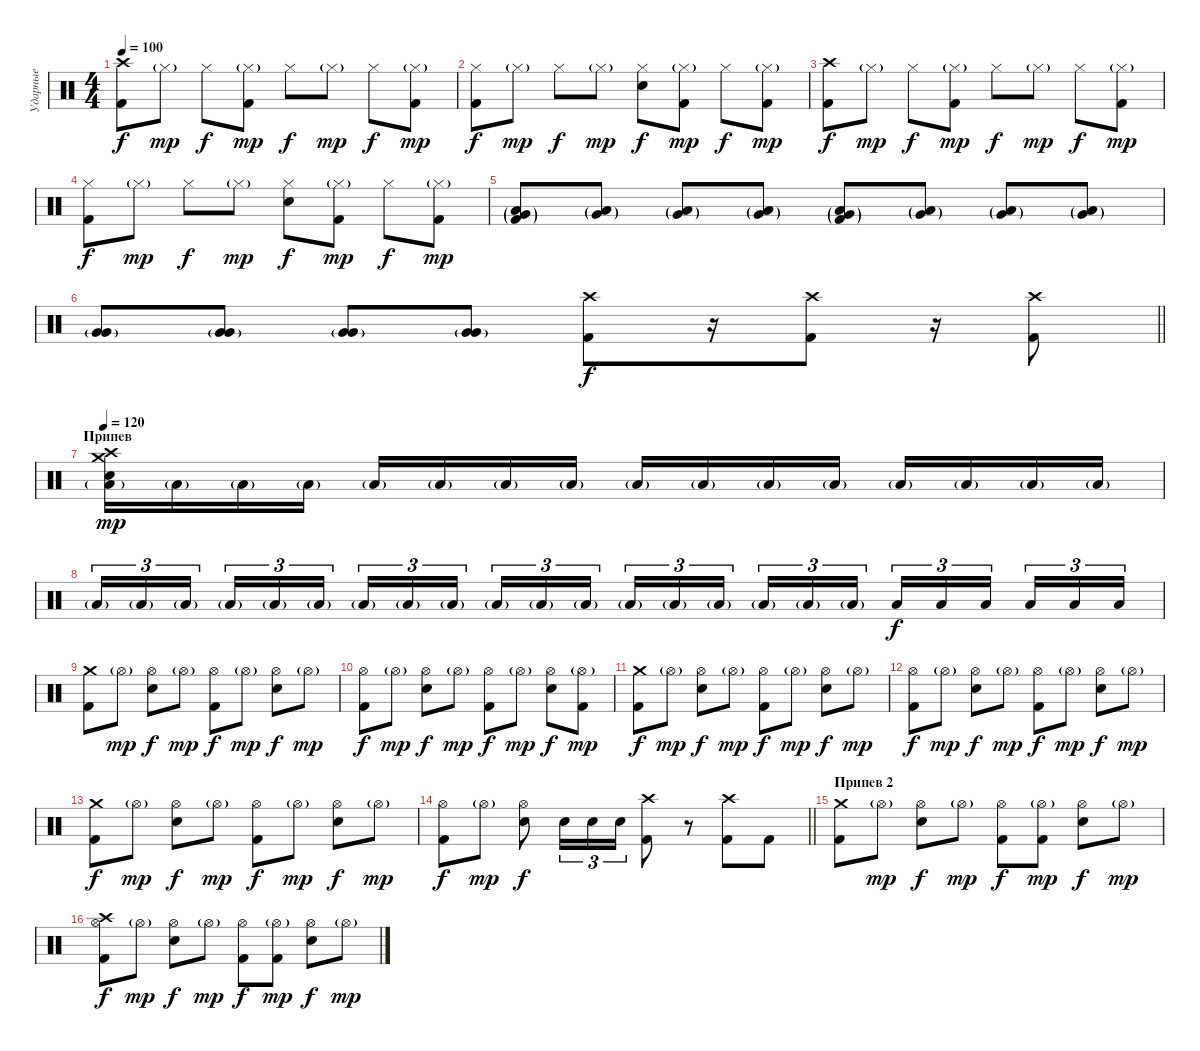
\track ("Ударные" "Ударные") {instrument percussion}
\staff {score}
\articulation defaults
\ts (4 4)
\tempo 100
\clef neutral
\ks c
("Crash high (hit)" "Kick (hit) 2").8{dy f} "Hi-Hat (closed)"{g}.8{dy mp} "Hi-Hat (closed)".8{dy f} ("Hi-Hat (closed)"{g} "Kick (hit) 2").8{dy mp} "Hi-Hat (closed)".8{dy f} "Hi-Hat (closed)"{g}.8{dy mp} "Hi-Hat (closed)".8{dy f} ("Hi-Hat (closed)"{g} "Kick (hit) 2").8{dy mp} |
("Hi-Hat (closed)" "Kick (hit) 2").8{dy f} "Hi-Hat (closed)"{g}.8{dy mp} "Hi-Hat (closed)".8{dy f} "Hi-Hat (closed)"{g}.8{dy mp} ("Hi-Hat (closed)" "Snare (hit) 2").8{dy f} ("Hi-Hat (closed)"{g} "Kick (hit) 2").8{dy mp} "Hi-Hat (closed)".8{dy f} ("Hi-Hat (closed)"{g} "Kick (hit) 2").8{dy mp} |
("Crash high (hit)" "Kick (hit) 2").8{dy f} "Hi-Hat (closed)"{g}.8{dy mp} "Hi-Hat (closed)".8{dy f} ("Hi-Hat (closed)"{g} "Kick (hit) 2").8{dy mp} "Hi-Hat (closed)".8{dy f} "Hi-Hat (closed)"{g}.8{dy mp} "Hi-Hat (closed)".8{dy f} ("Hi-Hat (closed)"{g} "Kick (hit) 2").8{dy mp} |
("Hi-Hat (closed)" "Kick (hit) 2").8{dy f} "Hi-Hat (closed)"{g}.8{dy mp} "Hi-Hat (closed)".8{dy f} "Hi-Hat (closed)"{g}.8{dy mp} ("Hi-Hat (closed)" "Snare (hit) 2").8{dy f} ("Hi-Hat (closed)"{g} "Kick (hit) 2").8{dy mp} "Hi-Hat (closed)".8{dy f} ("Hi-Hat (closed)"{g} "Kick (hit) 2").8{dy mp} |
("Low Floor Tom (hit)"{g} "Very Low Tom (hit)"{g} "Kick (hit) 2"{g}).8 ("Low Floor Tom (hit)"{g} "Very Low Tom (hit)"{g}).8 ("Low Floor Tom (hit)"{g} "Very Low Tom (hit)"{g}).8 ("Low Floor Tom (hit)"{g} "Very Low Tom (hit)"{g}).8 ("Low Floor Tom (hit)"{g} "Very Low Tom (hit)"{g} "Kick (hit) 2"{g}).8 ("Low Floor Tom (hit)"{g} "Very Low Tom (hit)"{g}).8 ("Low Floor Tom (hit)"{g} "Very Low Tom (hit)"{g}).8 ("Low Floor Tom (hit)"{g} "Very Low Tom (hit)"{g}).8 |
\barLineRight lightlight
("Very Low Tom (hit)" "Very Low Tom (hit)"{g}).8 ("Very Low Tom (hit)" "Very Low Tom (hit)"{g}).8 ("Very Low Tom (hit)" "Very Low Tom (hit)"{g}).8 ("Very Low Tom (hit)" "Very Low Tom (hit)"{g}).8 ("Crash high (hit)" "Kick (hit) 2").8{dy f} r.16 ("Crash high (hit)" "Kick (hit) 2").8 r.16 ("Crash high (hit)" "Kick (hit) 2").8 |
\section ("" "Припев")
\tempo 120
("Crash medium (hit)" "Crash high (hit)" "Snare (hit) 2" "Low Floor Tom (hit)"{g}).16{dy mp} "Low Floor Tom (hit)"{g}.16 "Low Floor Tom (hit)"{g}.16 "Low Floor Tom (hit)"{g}.16 "Low Floor Tom (hit)"{g}.16 "Low Floor Tom (hit)"{g}.16 "Low Floor Tom (hit)"{g}.16 "Low Floor Tom (hit)"{g}.16 "Low Floor Tom (hit)"{g}.16 "Low Floor Tom (hit)"{g}.16 "Low Floor Tom (hit)"{g}.16 "Low Floor Tom (hit)"{g}.16 "Low Floor Tom (hit)"{g}.16 "Low Floor Tom (hit)"{g}.16 "Low Floor Tom (hit)"{g}.16 "Low Floor Tom (hit)"{g}.16 |
"Low Floor Tom (hit)"{g}.16{tu (3 2)} "Low Floor Tom (hit)"{g}.16{tu (3 2)} "Low Floor Tom (hit)"{g}.16{tu (3 2) beam splitsecondary} "Low Floor Tom (hit)"{g}.16{tu (3 2)} "Low Floor Tom (hit)"{g}.16{tu (3 2)} "Low Floor Tom (hit)"{g}.16{tu (3 2)} "Low Floor Tom (hit)"{g}.16{tu (3 2)} "Low Floor Tom (hit)"{g}.16{tu (3 2)} "Low Floor Tom (hit)"{g}.16{tu (3 2) beam splitsecondary} "Low Floor Tom (hit)"{g}.16{tu (3 2)} "Low Floor Tom (hit)"{g}.16{tu (3 2)} "Low Floor Tom (hit)"{g}.16{tu (3 2)} "Low Floor Tom (hit)"{g}.16{tu (3 2)} "Low Floor Tom (hit)"{g}.16{tu (3 2)} "Low Floor Tom (hit)"{g}.16{tu (3 2) beam splitsecondary} "Low Floor Tom (hit)"{g}.16{tu (3 2)} "Low Floor Tom (hit)"{g}.16{tu (3 2)} "Low Floor Tom (hit)"{g}.16{tu (3 2)} "Low Floor Tom (hit)".16{tu (3 2) dy f} "Low Floor Tom (hit)".16{tu (3 2)} "Low Floor Tom (hit)".16{tu (3 2) beam splitsecondary} "Low Floor Tom (hit)".16{tu (3 2)} "Low Floor Tom (hit)".16{tu (3 2)} "Low Floor Tom (hit)".16{tu (3 2)} |
("Crash medium (hit)" "Kick (hit) 2").8 "Hi-Hat (open)"{g}.8{dy mp} ("Hi-Hat (open)" "Snare (hit) 2").8{dy f} "Hi-Hat (open)"{g}.8{dy mp} ("Hi-Hat (open)" "Kick (hit) 2").8{dy f} "Hi-Hat (open)"{g}.8{dy mp} ("Hi-Hat (open)" "Snare (hit) 2").8{dy f} "Hi-Hat (open)"{g}.8{dy mp} |
("Hi-Hat (open)" "Kick (hit) 2").8{dy f} "Hi-Hat (open)"{g}.8{dy mp} ("Hi-Hat (open)" "Snare (hit) 2").8{dy f} "Hi-Hat (open)"{g}.8{dy mp} ("Hi-Hat (open)" "Kick (hit) 2").8{dy f} "Hi-Hat (open)"{g}.8{dy mp} ("Hi-Hat (open)" "Snare (hit) 2").8{dy f} ("Hi-Hat (open)"{g} "Kick (hit) 2").8{dy mp} |
("Crash medium (hit)" "Kick (hit) 2").8{dy f} "Hi-Hat (open)"{g}.8{dy mp} ("Hi-Hat (open)" "Snare (hit) 2").8{dy f} "Hi-Hat (open)"{g}.8{dy mp} ("Hi-Hat (open)" "Kick (hit) 2").8{dy f} "Hi-Hat (open)"{g}.8{dy mp} ("Hi-Hat (open)" "Snare (hit) 2").8{dy f} "Hi-Hat (open)"{g}.8{dy mp} |
("Hi-Hat (open)" "Kick (hit) 2").8{dy f} "Hi-Hat (open)"{g}.8{dy mp} ("Hi-Hat (open)" "Snare (hit) 2").8{dy f} "Hi-Hat (open)"{g}.8{dy mp} ("Hi-Hat (open)" "Kick (hit) 2").8{dy f} "Hi-Hat (open)"{g}.8{dy mp} ("Hi-Hat (open)" "Snare (hit) 2").8{dy f} "Hi-Hat (open)"{g}.8{dy mp} |
("Crash medium (hit)" "Kick (hit) 2").8{dy f} "Hi-Hat (open)"{g}.8{dy mp} ("Hi-Hat (open)" "Snare (hit) 2").8{dy f} "Hi-Hat (open)"{g}.8{dy mp} ("Hi-Hat (open)" "Kick (hit) 2").8{dy f} "Hi-Hat (open)"{g}.8{dy mp} ("Hi-Hat (open)" "Snare (hit) 2").8{dy f} "Hi-Hat (open)"{g}.8{dy mp} |
\barLineRight lightlight
("Hi-Hat (open)" "Kick (hit) 2").8{dy f} "Hi-Hat (open)"{g}.8{dy mp} ("Hi-Hat (open)" "Snare (hit) 2").8{dy f} "Snare (hit) 2".16{tu (3 2)} "Snare (hit) 2".16{tu (3 2)} "Snare (hit) 2".16{tu (3 2)} ("Crash high (hit)" "Kick (hit) 2").8 r.8{volume 0} ("Crash high (hit)" "Kick (hit) 2").8{volume 13} "Kick (hit) 2".8 |
\section ("" "Припев 2")
("Crash medium (hit)" "Kick (hit) 2").8 "Hi-Hat (open)"{g}.8{dy mp} ("Hi-Hat (open)" "Snare (hit) 2").8{dy f} "Hi-Hat (open)"{g}.8{dy mp} ("Hi-Hat (open)" "Kick (hit) 2").8{dy f} ("Hi-Hat (open)"{g} "Kick (hit) 2").8{dy mp} ("Hi-Hat (open)" "Snare (hit) 2").8{dy f} "Hi-Hat (open)"{g}.8{dy mp} |
("Crash high (hit)" "Hi-Hat (open)" "Kick (hit) 2").8{dy f} "Hi-Hat (open)"{g}.8{dy mp} ("Hi-Hat (open)" "Snare (hit) 2").8{dy f} "Hi-Hat (open)"{g}.8{dy mp} ("Hi-Hat (open)" "Kick (hit) 2").8{dy f} ("Hi-Hat (open)"{g} "Kick (hit) 2").8{dy mp} ("Hi-Hat (open)" "Snare (hit) 2").8{dy f} "Hi-Hat (open)"{g}.8{dy mp}
